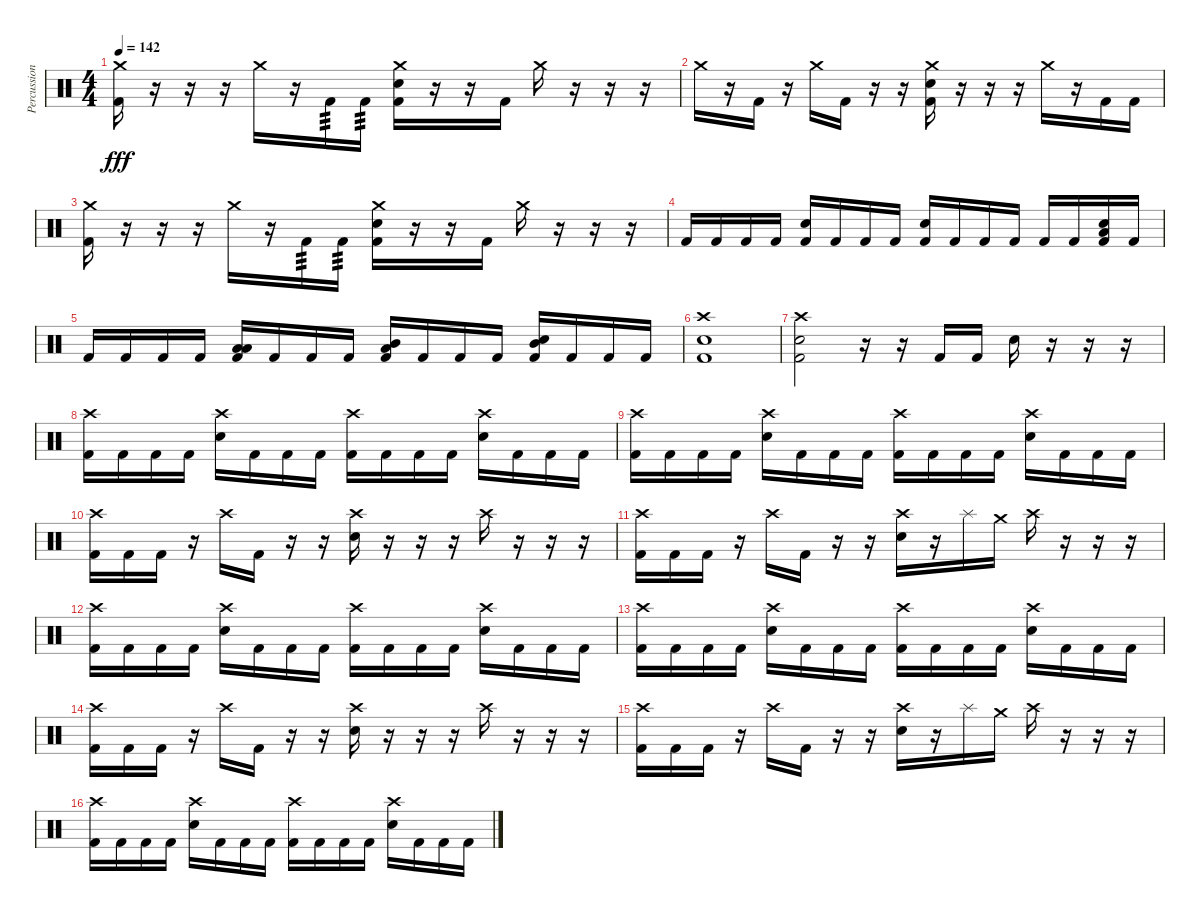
\track ("Percussion" "Percussion") {instrument percussion}
\staff {score}
\articulation defaults
\ts (4 4)
\tempo 142
\clef neutral
\ks c
("Crash medium (hit)" "Kick (hit) 2").16{dy fff} r.16 r.16 r.16 "Crash medium (hit)".16 r.16 "Kick (hit) 2".16{tp 3} "Kick (hit) 2".16{tp 3} ("Crash medium (hit)" "Electric Snare (hit)" "Kick (hit) 2").16 r.16 r.16 "Kick (hit) 2".16 "Crash medium (hit)".16 r.16 r.16 r.16 |
"Crash medium (hit)".16 r.16 "Kick (hit) 2".16 r.16 "Crash medium (hit)".16 "Kick (hit) 2".16 r.16 r.16 ("Crash medium (hit)" "Electric Snare (hit)" "Kick (hit) 2").16 r.16 r.16 r.16 "Crash medium (hit)".16 r.16 "Kick (hit) 2".16 "Kick (hit) 2".16 |
("Crash medium (hit)" "Kick (hit) 2").16 r.16 r.16 r.16 "Crash medium (hit)".16 r.16 "Kick (hit) 2".16{tp 3} "Kick (hit) 2".16{tp 3} ("Crash medium (hit)" "Electric Snare (hit)" "Kick (hit) 2").16 r.16 r.16 "Kick (hit) 2".16 "Crash medium (hit)".16 r.16 r.16 r.16 |
"Kick (hit) 2".16 "Kick (hit) 2".16 "Kick (hit) 2".16 "Kick (hit) 2".16 ("Electric Snare (hit)" "Kick (hit) 2").16 "Kick (hit) 2".16 "Kick (hit) 2".16 "Kick (hit) 2".16 ("Electric Snare (hit)" "Kick (hit) 2").16 "Kick (hit) 2".16 "Kick (hit) 2".16 "Kick (hit) 2".16 "Kick (hit) 2".16 "Kick (hit) 2".16 ("Electric Snare (hit)" "Low Floor Tom (hit)" "Kick (hit) 2").16 "Kick (hit) 2".16 |
"Kick (hit) 2".16 "Kick (hit) 2".16 "Kick (hit) 2".16 "Kick (hit) 2".16 ("Low Floor Tom (hit)" "Low Tom (hit)" "Kick (hit) 2").16 "Kick (hit) 2".16 "Kick (hit) 2".16 "Kick (hit) 2".16 ("Low Tom (hit)" "Mid Tom (hit)" "Kick (hit) 2").16 "Kick (hit) 2".16 "Kick (hit) 2".16 "Kick (hit) 2".16 ("Mid Tom (hit)" "Electric Snare (hit)" "Kick (hit) 2").16 "Kick (hit) 2".16 "Kick (hit) 2".16 "Kick (hit) 2".16 |
("Crash high (hit)" "Electric Snare (hit)" "Kick (hit) 2").1 |
("Crash high (hit)" "Electric Snare (hit)" "Kick (hit) 2").2 r.16 r.16 "Kick (hit) 2".16 "Kick (hit) 2".16 "Electric Snare (hit)".16 r.16 r.16 r.16 |
("Crash high (hit)" "Kick (hit) 2").16 "Kick (hit) 2".16 "Kick (hit) 2".16 "Kick (hit) 2".16 ("Crash high (hit)" "Electric Snare (hit)").16 "Kick (hit) 2".16 "Kick (hit) 2".16 "Kick (hit) 2".16 ("Crash high (hit)" "Kick (hit) 2").16 "Kick (hit) 2".16 "Kick (hit) 2".16 "Kick (hit) 2".16 ("Crash high (hit)" "Electric Snare (hit)").16 "Kick (hit) 2".16 "Kick (hit) 2".16 "Kick (hit) 2".16 |
("Crash high (hit)" "Kick (hit) 2").16 "Kick (hit) 2".16 "Kick (hit) 2".16 "Kick (hit) 2".16 ("Crash high (hit)" "Electric Snare (hit)").16 "Kick (hit) 2".16 "Kick (hit) 2".16 "Kick (hit) 2".16 ("Crash high (hit)" "Kick (hit) 2").16 "Kick (hit) 2".16 "Kick (hit) 2".16 "Kick (hit) 2".16 ("Crash high (hit)" "Electric Snare (hit)").16 "Kick (hit) 2".16 "Kick (hit) 2".16 "Kick (hit) 2".16 |
("Crash high (hit)" "Kick (hit) 2").16 "Kick (hit) 2".16 "Kick (hit) 2".16 r.16 "Crash high (hit)".16 "Kick (hit) 2".16 r.16 r.16 ("Crash high (hit)" "Electric Snare (hit)").16 r.16 r.16 r.16 "Crash high (hit)".16 r.16 r.16 r.16 |
("Crash high (hit)" "Kick (hit) 2").16 "Kick (hit) 2".16 "Kick (hit) 2".16 r.16 "Crash high (hit)".16 "Kick (hit) 2".16 r.16 r.16 ("Crash high (hit)" "Electric Snare (hit)").16 r.16 "Splash (hit)".16 "Crash medium (hit)".16 "Crash high (hit)".16 r.16 r.16 r.16 |
("Crash high (hit)" "Kick (hit) 2").16 "Kick (hit) 2".16 "Kick (hit) 2".16 "Kick (hit) 2".16 ("Crash high (hit)" "Electric Snare (hit)").16 "Kick (hit) 2".16 "Kick (hit) 2".16 "Kick (hit) 2".16 ("Crash high (hit)" "Kick (hit) 2").16 "Kick (hit) 2".16 "Kick (hit) 2".16 "Kick (hit) 2".16 ("Crash high (hit)" "Electric Snare (hit)").16 "Kick (hit) 2".16 "Kick (hit) 2".16 "Kick (hit) 2".16 |
("Crash high (hit)" "Kick (hit) 2").16 "Kick (hit) 2".16 "Kick (hit) 2".16 "Kick (hit) 2".16 ("Crash high (hit)" "Electric Snare (hit)").16 "Kick (hit) 2".16 "Kick (hit) 2".16 "Kick (hit) 2".16 ("Crash high (hit)" "Kick (hit) 2").16 "Kick (hit) 2".16 "Kick (hit) 2".16 "Kick (hit) 2".16 ("Crash high (hit)" "Electric Snare (hit)").16 "Kick (hit) 2".16 "Kick (hit) 2".16 "Kick (hit) 2".16 |
("Crash high (hit)" "Kick (hit) 2").16 "Kick (hit) 2".16 "Kick (hit) 2".16 r.16 "Crash high (hit)".16 "Kick (hit) 2".16 r.16 r.16 ("Crash high (hit)" "Electric Snare (hit)").16 r.16 r.16 r.16 "Crash high (hit)".16 r.16 r.16 r.16 |
("Crash high (hit)" "Kick (hit) 2").16 "Kick (hit) 2".16 "Kick (hit) 2".16 r.16 "Crash high (hit)".16 "Kick (hit) 2".16 r.16 r.16 ("Crash high (hit)" "Electric Snare (hit)").16 r.16 "Splash (hit)".16 "Crash medium (hit)".16 "Crash high (hit)".16 r.16 r.16 r.16 |
("Crash high (hit)" "Kick (hit) 2").16 "Kick (hit) 2".16 "Kick (hit) 2".16 "Kick (hit) 2".16 ("Crash high (hit)" "Electric Snare (hit)").16 "Kick (hit) 2".16 "Kick (hit) 2".16 "Kick (hit) 2".16 ("Crash high (hit)" "Kick (hit) 2").16 "Kick (hit) 2".16 "Kick (hit) 2".16 "Kick (hit) 2".16 ("Crash high (hit)" "Electric Snare (hit)").16 "Kick (hit) 2".16 "Kick (hit) 2".16 "Kick (hit) 2".16
